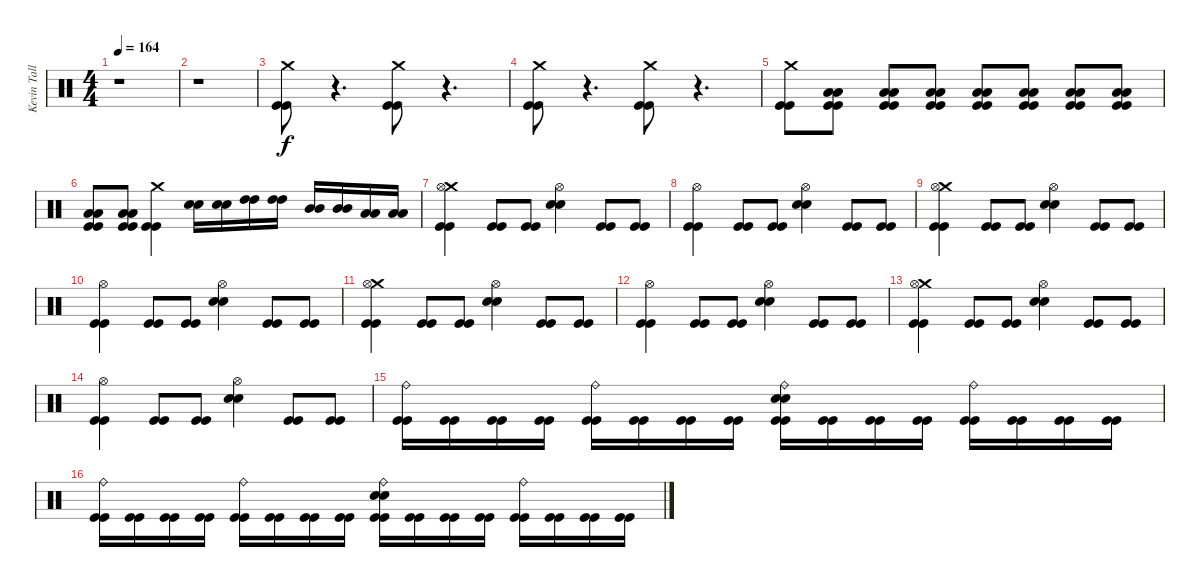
\track ("Kevin Talley" "Kevin Tall") {instrument percussion}
\staff {score}
\articulation defaults
\ts (4 4)
\tempo 164
\clef neutral
\ks c
r.1{dy f} |
r.1 |
("Crash medium (hit)" "Kick (hit)" "Kick (hit)").8 r.4{d} ("Crash medium (hit)" "Kick (hit)" "Kick (hit)").8 r.4{d} |
("Crash medium (hit)" "Kick (hit)" "Kick (hit)").8 r.4{d} ("Crash medium (hit)" "Kick (hit)" "Kick (hit)").8 r.4{d} |
("Crash medium (hit)" "Kick (hit)" "Kick (hit)").8 ("Low Floor Tom (hit)" "Low Floor Tom (hit)" "Kick (hit)" "Kick (hit)").8 ("Low Floor Tom (hit)" "Low Floor Tom (hit)" "Kick (hit)" "Kick (hit)").8 ("Low Floor Tom (hit)" "Low Floor Tom (hit)" "Kick (hit)" "Kick (hit)").8 ("Low Floor Tom (hit)" "Low Floor Tom (hit)" "Kick (hit)" "Kick (hit)").8 ("Low Floor Tom (hit)" "Low Floor Tom (hit)" "Kick (hit)" "Kick (hit)").8 ("Low Floor Tom (hit)" "Low Floor Tom (hit)" "Kick (hit)" "Kick (hit)").8 ("Low Floor Tom (hit)" "Low Floor Tom (hit)" "Kick (hit)" "Kick (hit)").8 |
("Low Floor Tom (hit)" "Low Floor Tom (hit)" "Kick (hit)" "Kick (hit)").8 ("Low Floor Tom (hit)" "Low Floor Tom (hit)" "Kick (hit)" "Kick (hit)").8 ("Crash medium (hit)" "Kick (hit)" "Kick (hit)").4 ("Snare (hit) 2" "Snare (hit) 2").16 ("Snare (hit) 2" "Snare (hit) 2").16 ("High Tom (hit)" "High Tom (hit)").16 ("High Tom (hit)" "High Tom (hit)").16 ("Mid Tom (hit)" "Mid Tom (hit)").16 ("Mid Tom (hit)" "Mid Tom (hit)").16 ("Low Tom (hit)" "Low Tom (hit)").16 ("Low Tom (hit)" "Low Tom (hit)").16 |
("Crash medium (hit)" "Hi-Hat (open)" "Kick (hit)" "Kick (hit)").4 ("Kick (hit)" "Kick (hit)").8 ("Kick (hit)" "Kick (hit)").8 ("Snare (hit) 2" "Snare (hit) 2" "Hi-Hat (open)").4 ("Kick (hit)" "Kick (hit)").8 ("Kick (hit)" "Kick (hit)").8 |
("Hi-Hat (open)" "Kick (hit)" "Kick (hit)").4 ("Kick (hit)" "Kick (hit)").8 ("Kick (hit)" "Kick (hit)").8 ("Snare (hit) 2" "Snare (hit) 2" "Hi-Hat (open)").4 ("Kick (hit)" "Kick (hit)").8 ("Kick (hit)" "Kick (hit)").8 |
("Crash medium (hit)" "Hi-Hat (open)" "Kick (hit)" "Kick (hit)").4 ("Kick (hit)" "Kick (hit)").8 ("Kick (hit)" "Kick (hit)").8 ("Snare (hit) 2" "Snare (hit) 2" "Hi-Hat (open)").4 ("Kick (hit)" "Kick (hit)").8 ("Kick (hit)" "Kick (hit)").8 |
("Hi-Hat (open)" "Kick (hit)" "Kick (hit)").4 ("Kick (hit)" "Kick (hit)").8 ("Kick (hit)" "Kick (hit)").8 ("Snare (hit) 2" "Snare (hit) 2" "Hi-Hat (open)").4 ("Kick (hit)" "Kick (hit)").8 ("Kick (hit)" "Kick (hit)").8 |
("Crash medium (hit)" "Hi-Hat (open)" "Kick (hit)" "Kick (hit)").4 ("Kick (hit)" "Kick (hit)").8 ("Kick (hit)" "Kick (hit)").8 ("Snare (hit) 2" "Snare (hit) 2" "Hi-Hat (open)").4 ("Kick (hit)" "Kick (hit)").8 ("Kick (hit)" "Kick (hit)").8 |
("Hi-Hat (open)" "Kick (hit)" "Kick (hit)").4 ("Kick (hit)" "Kick (hit)").8 ("Kick (hit)" "Kick (hit)").8 ("Snare (hit) 2" "Snare (hit) 2" "Hi-Hat (open)").4 ("Kick (hit)" "Kick (hit)").8 ("Kick (hit)" "Kick (hit)").8 |
("Crash medium (hit)" "Hi-Hat (open)" "Kick (hit)" "Kick (hit)").4 ("Kick (hit)" "Kick (hit)").8 ("Kick (hit)" "Kick (hit)").8 ("Snare (hit) 2" "Snare (hit) 2" "Hi-Hat (open)").4 ("Kick (hit)" "Kick (hit)").8 ("Kick (hit)" "Kick (hit)").8 |
("Hi-Hat (open)" "Kick (hit)" "Kick (hit)").4 ("Kick (hit)" "Kick (hit)").8 ("Kick (hit)" "Kick (hit)").8 ("Snare (hit) 2" "Snare (hit) 2" "Hi-Hat (open)").4 ("Kick (hit)" "Kick (hit)").8 ("Kick (hit)" "Kick (hit)").8 |
("Ride (bell)" "Kick (hit)" "Kick (hit)").16 ("Kick (hit)" "Kick (hit)").16 ("Kick (hit)" "Kick (hit)").16 ("Kick (hit)" "Kick (hit)").16 ("Ride (bell)" "Kick (hit)" "Kick (hit)").16 ("Kick (hit)" "Kick (hit)").16 ("Kick (hit)" "Kick (hit)").16 ("Kick (hit)" "Kick (hit)").16 ("Snare (hit) 2" "Snare (hit) 2" "Ride (bell)" "Kick (hit)" "Kick (hit)").16 ("Kick (hit)" "Kick (hit)").16 ("Kick (hit)" "Kick (hit)").16 ("Kick (hit)" "Kick (hit)").16 ("Ride (bell)" "Kick (hit)" "Kick (hit)").16 ("Kick (hit)" "Kick (hit)").16 ("Kick (hit)" "Kick (hit)").16 ("Kick (hit)" "Kick (hit)").16 |
("Ride (bell)" "Kick (hit)" "Kick (hit)").16 ("Kick (hit)" "Kick (hit)").16 ("Kick (hit)" "Kick (hit)").16 ("Kick (hit)" "Kick (hit)").16 ("Ride (bell)" "Kick (hit)" "Kick (hit)").16 ("Kick (hit)" "Kick (hit)").16 ("Kick (hit)" "Kick (hit)").16 ("Kick (hit)" "Kick (hit)").16 ("Snare (hit) 2" "Snare (hit) 2" "Ride (bell)" "Kick (hit)" "Kick (hit)").16 ("Kick (hit)" "Kick (hit)").16 ("Kick (hit)" "Kick (hit)").16 ("Kick (hit)" "Kick (hit)").16 ("Ride (bell)" "Kick (hit)" "Kick (hit)").16 ("Kick (hit)" "Kick (hit)").16 ("Kick (hit)" "Kick (hit)").16 ("Kick (hit)" "Kick (hit)").16
